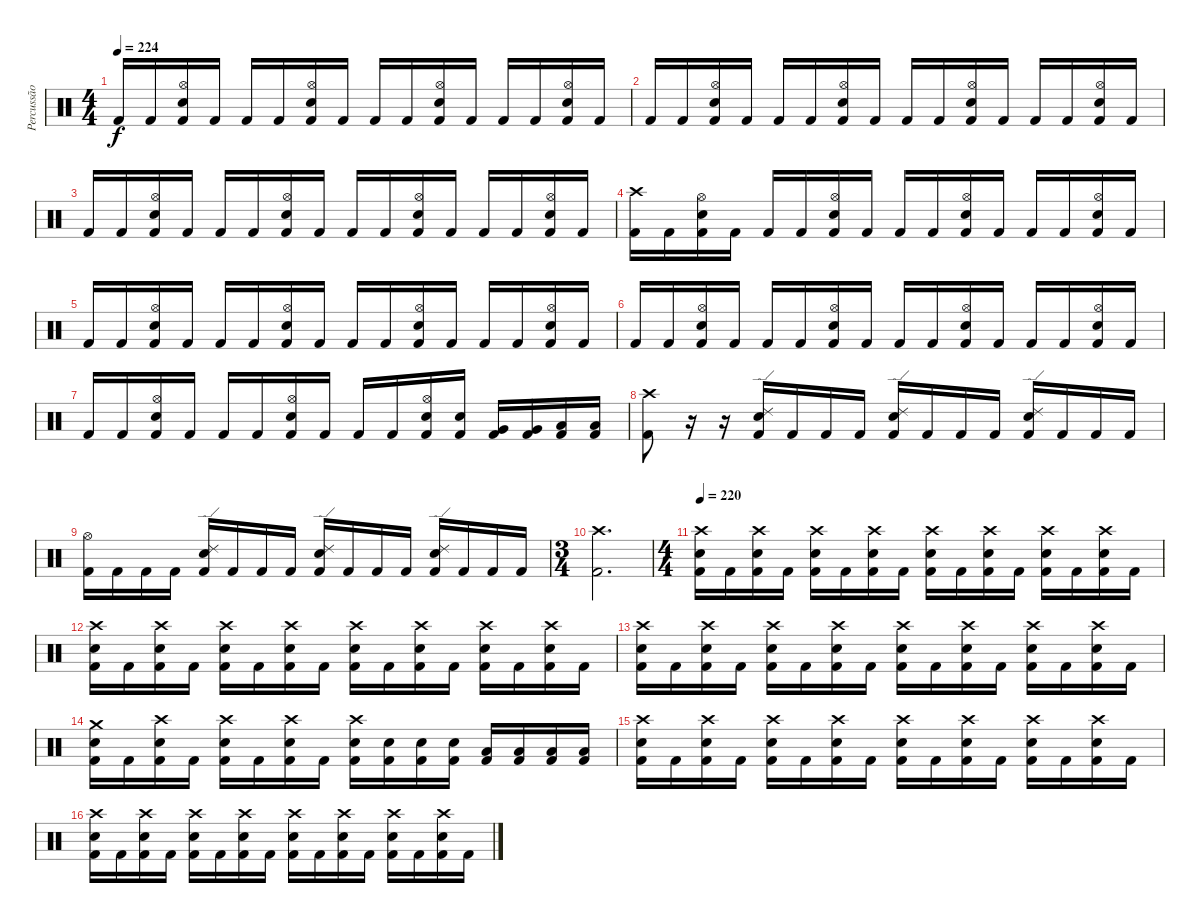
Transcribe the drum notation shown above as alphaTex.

\track ("Percussão" "Percussão") {instrument percussion}
\staff {score}
\articulation defaults
\ts (4 4)
\tempo 224
\clef neutral
\ks c "Kick (hit) 2".16{dy f} "Kick (hit) 2".16
("Hi-Hat (open)" "Electric Snare (hit)" "Kick (hit) 2").16 "Kick (hit) 2".16 "Kick (hit) 2".16 "Kick (hit) 2".16 ("Hi-Hat (open)" "Electric Snare (hit)" "Kick (hit) 2").16 "Kick (hit) 2".16 "Kick (hit) 2".16 "Kick (hit) 2".16 ("Hi-Hat (open)" "Electric Snare (hit)" "Kick (hit) 2").16 "Kick (hit) 2".16 "Kick (hit) 2".16 "Kick (hit) 2".16 ("Hi-Hat (open)" "Electric Snare (hit)" "Kick (hit) 2").16 "Kick (hit) 2".16 |
"Kick (hit) 2".16 "Kick (hit) 2".16 ("Hi-Hat (open)" "Electric Snare (hit)" "Kick (hit) 2").16 "Kick (hit) 2".16 "Kick (hit) 2".16 "Kick (hit) 2".16 ("Hi-Hat (open)" "Electric Snare (hit)" "Kick (hit) 2").16 "Kick (hit) 2".16 "Kick (hit) 2".16 "Kick (hit) 2".16 ("Hi-Hat (open)" "Electric Snare (hit)" "Kick (hit) 2").16 "Kick (hit) 2".16 "Kick (hit) 2".16 "Kick (hit) 2".16 ("Hi-Hat (open)" "Electric Snare (hit)" "Kick (hit) 2").16 "Kick (hit) 2".16 |
"Kick (hit) 2".16 "Kick (hit) 2".16 ("Hi-Hat (open)" "Electric Snare (hit)" "Kick (hit) 2").16 "Kick (hit) 2".16 "Kick (hit) 2".16 "Kick (hit) 2".16 ("Hi-Hat (open)" "Electric Snare (hit)" "Kick (hit) 2").16 "Kick (hit) 2".16 "Kick (hit) 2".16 "Kick (hit) 2".16 ("Hi-Hat (open)" "Electric Snare (hit)" "Kick (hit) 2").16 "Kick (hit) 2".16 "Kick (hit) 2".16 "Kick (hit) 2".16 ("Hi-Hat (open)" "Electric Snare (hit)" "Kick (hit) 2").16 "Kick (hit) 2".16 |
("Crash high (hit)" "Kick (hit) 2").16 "Kick (hit) 2".16 ("Hi-Hat (open)" "Electric Snare (hit)" "Kick (hit) 2").16 "Kick (hit) 2".16 "Kick (hit) 2".16 "Kick (hit) 2".16 ("Hi-Hat (open)" "Electric Snare (hit)" "Kick (hit) 2").16 "Kick (hit) 2".16 "Kick (hit) 2".16 "Kick (hit) 2".16 ("Hi-Hat (open)" "Electric Snare (hit)" "Kick (hit) 2").16 "Kick (hit) 2".16 "Kick (hit) 2".16 "Kick (hit) 2".16 ("Hi-Hat (open)" "Electric Snare (hit)" "Kick (hit) 2").16 "Kick (hit) 2".16 |
"Kick (hit) 2".16 "Kick (hit) 2".16 ("Hi-Hat (open)" "Electric Snare (hit)" "Kick (hit) 2").16 "Kick (hit) 2".16 "Kick (hit) 2".16 "Kick (hit) 2".16 ("Hi-Hat (open)" "Electric Snare (hit)" "Kick (hit) 2").16 "Kick (hit) 2".16 "Kick (hit) 2".16 "Kick (hit) 2".16 ("Hi-Hat (open)" "Electric Snare (hit)" "Kick (hit) 2").16 "Kick (hit) 2".16 "Kick (hit) 2".16 "Kick (hit) 2".16 ("Hi-Hat (open)" "Electric Snare (hit)" "Kick (hit) 2").16 "Kick (hit) 2".16 |
"Kick (hit) 2".16 "Kick (hit) 2".16 ("Hi-Hat (open)" "Electric Snare (hit)" "Kick (hit) 2").16 "Kick (hit) 2".16 "Kick (hit) 2".16 "Kick (hit) 2".16 ("Hi-Hat (open)" "Electric Snare (hit)" "Kick (hit) 2").16 "Kick (hit) 2".16 "Kick (hit) 2".16 "Kick (hit) 2".16 ("Hi-Hat (open)" "Electric Snare (hit)" "Kick (hit) 2").16 "Kick (hit) 2".16 "Kick (hit) 2".16 "Kick (hit) 2".16 ("Hi-Hat (open)" "Electric Snare (hit)" "Kick (hit) 2").16 "Kick (hit) 2".16 |
"Kick (hit) 2".16 "Kick (hit) 2".16 ("Hi-Hat (open)" "Electric Snare (hit)" "Kick (hit) 2").16 "Kick (hit) 2".16 "Kick (hit) 2".16 "Kick (hit) 2".16 ("Hi-Hat (open)" "Electric Snare (hit)" "Kick (hit) 2").16 "Kick (hit) 2".16 "Kick (hit) 2".16 "Kick (hit) 2".16 ("Hi-Hat (open)" "Electric Snare (hit)" "Kick (hit) 2").16 ("Electric Snare (hit)" "Kick (hit) 2").16 ("Very Low Tom (hit)" "Kick (hit) 2").16 ("Very Low Tom (hit)" "Kick (hit) 2").16 ("Low Tom (hit)" "Kick (hit) 2").16 ("Low Tom (hit)" "Kick (hit) 2").16 |
("Crash high (hit)" "Kick (hit) 2").8 r.16 r.16 ("Ride (edge) 2" "Electric Snare (hit)" "Kick (hit) 2").16 "Kick (hit) 2".16 "Kick (hit) 2".16 "Kick (hit) 2".16 ("Ride (edge) 2" "Electric Snare (hit)" "Kick (hit) 2").16 "Kick (hit) 2".16 "Kick (hit) 2".16 "Kick (hit) 2".16 ("Ride (edge) 2" "Electric Snare (hit)" "Kick (hit) 2").16 "Kick (hit) 2".16 "Kick (hit) 2".16 "Kick (hit) 2".16 |
("Hi-Hat (open)" "Kick (hit) 2").16 "Kick (hit) 2".16 "Kick (hit) 2".16 "Kick (hit) 2".16 ("Ride (edge) 2" "Electric Snare (hit)" "Kick (hit) 2").16 "Kick (hit) 2".16 "Kick (hit) 2".16 "Kick (hit) 2".16 ("Ride (edge) 2" "Electric Snare (hit)" "Kick (hit) 2").16 "Kick (hit) 2".16 "Kick (hit) 2".16 "Kick (hit) 2".16 ("Ride (edge) 2" "Electric Snare (hit)" "Kick (hit) 2").16 "Kick (hit) 2".16 "Kick (hit) 2".16 "Kick (hit) 2".16 |
\ts (3 4)
("Crash high (hit)" "Kick (hit) 2").2{d} |
\ts (4 4)
\tempo 220
("Crash high (hit)" "Electric Snare (hit)" "Kick (hit) 2").16 "Kick (hit) 2".16 ("Crash high (hit)" "Electric Snare (hit)" "Kick (hit) 2").16 "Kick (hit) 2".16 ("Crash high (hit)" "Electric Snare (hit)" "Kick (hit) 2").16 "Kick (hit) 2".16 ("Crash high (hit)" "Electric Snare (hit)" "Kick (hit) 2").16 "Kick (hit) 2".16 ("Crash high (hit)" "Electric Snare (hit)" "Kick (hit) 2").16 "Kick (hit) 2".16 ("Crash high (hit)" "Electric Snare (hit)" "Kick (hit) 2").16 "Kick (hit) 2".16 ("Crash high (hit)" "Electric Snare (hit)" "Kick (hit) 2").16 "Kick (hit) 2".16 ("Crash high (hit)" "Electric Snare (hit)" "Kick (hit) 2").16 "Kick (hit) 2".16 |
("Crash high (hit)" "Electric Snare (hit)" "Kick (hit) 2").16 "Kick (hit) 2".16 ("Crash high (hit)" "Electric Snare (hit)" "Kick (hit) 2").16 "Kick (hit) 2".16 ("Crash high (hit)" "Electric Snare (hit)" "Kick (hit) 2").16 "Kick (hit) 2".16 ("Crash high (hit)" "Electric Snare (hit)" "Kick (hit) 2").16 "Kick (hit) 2".16 ("Crash high (hit)" "Electric Snare (hit)" "Kick (hit) 2").16 "Kick (hit) 2".16 ("Crash high (hit)" "Electric Snare (hit)" "Kick (hit) 2").16 "Kick (hit) 2".16 ("Crash high (hit)" "Electric Snare (hit)" "Kick (hit) 2").16 "Kick (hit) 2".16 ("Crash high (hit)" "Electric Snare (hit)" "Kick (hit) 2").16 "Kick (hit) 2".16 |
("Crash high (hit)" "Electric Snare (hit)" "Kick (hit) 2").16 "Kick (hit) 2".16 ("Crash high (hit)" "Electric Snare (hit)" "Kick (hit) 2").16 "Kick (hit) 2".16 ("Crash high (hit)" "Electric Snare (hit)" "Kick (hit) 2").16 "Kick (hit) 2".16 ("Crash high (hit)" "Electric Snare (hit)" "Kick (hit) 2").16 "Kick (hit) 2".16 ("Crash high (hit)" "Electric Snare (hit)" "Kick (hit) 2").16 "Kick (hit) 2".16 ("Crash high (hit)" "Electric Snare (hit)" "Kick (hit) 2").16 "Kick (hit) 2".16 ("Crash high (hit)" "Electric Snare (hit)" "Kick (hit) 2").16 "Kick (hit) 2".16 ("Crash high (hit)" "Electric Snare (hit)" "Kick (hit) 2").16 "Kick (hit) 2".16 |
("Crash medium (hit)" "Electric Snare (hit)" "Kick (hit) 2").16 "Kick (hit) 2".16 ("Crash high (hit)" "Electric Snare (hit)" "Kick (hit) 2").16 "Kick (hit) 2".16 ("Crash high (hit)" "Electric Snare (hit)" "Kick (hit) 2").16 "Kick (hit) 2".16 ("Crash high (hit)" "Electric Snare (hit)" "Kick (hit) 2").16 "Kick (hit) 2".16 ("Crash high (hit)" "Electric Snare (hit)" "Kick (hit) 2").16 ("Electric Snare (hit)" "Kick (hit) 2").16 ("Electric Snare (hit)" "Kick (hit) 2").16 ("Electric Snare (hit)" "Kick (hit) 2").16 ("Low Tom (hit)" "Kick (hit) 2").16 ("Low Tom (hit)" "Kick (hit) 2").16 ("Low Tom (hit)" "Kick (hit) 2").16 ("Low Tom (hit)" "Kick (hit) 2").16 |
("Crash high (hit)" "Electric Snare (hit)" "Kick (hit) 2").16 "Kick (hit) 2".16 ("Crash high (hit)" "Electric Snare (hit)" "Kick (hit) 2").16 "Kick (hit) 2".16 ("Crash high (hit)" "Electric Snare (hit)" "Kick (hit) 2").16 "Kick (hit) 2".16 ("Crash high (hit)" "Electric Snare (hit)" "Kick (hit) 2").16 "Kick (hit) 2".16 ("Crash high (hit)" "Electric Snare (hit)" "Kick (hit) 2").16 "Kick (hit) 2".16 ("Crash high (hit)" "Electric Snare (hit)" "Kick (hit) 2").16 "Kick (hit) 2".16 ("Crash high (hit)" "Electric Snare (hit)" "Kick (hit) 2").16 "Kick (hit) 2".16 ("Crash high (hit)" "Electric Snare (hit)" "Kick (hit) 2").16 "Kick (hit) 2".16 |
("Crash high (hit)" "Electric Snare (hit)" "Kick (hit) 2").16 "Kick (hit) 2".16 ("Crash high (hit)" "Electric Snare (hit)" "Kick (hit) 2").16 "Kick (hit) 2".16 ("Crash high (hit)" "Electric Snare (hit)" "Kick (hit) 2").16 "Kick (hit) 2".16 ("Crash high (hit)" "Electric Snare (hit)" "Kick (hit) 2").16 "Kick (hit) 2".16 ("Crash high (hit)" "Electric Snare (hit)" "Kick (hit) 2").16 "Kick (hit) 2".16 ("Crash high (hit)" "Electric Snare (hit)" "Kick (hit) 2").16 "Kick (hit) 2".16 ("Crash high (hit)" "Electric Snare (hit)" "Kick (hit) 2").16 "Kick (hit) 2".16 ("Crash high (hit)" "Electric Snare (hit)" "Kick (hit) 2").16 "Kick (hit) 2".16
